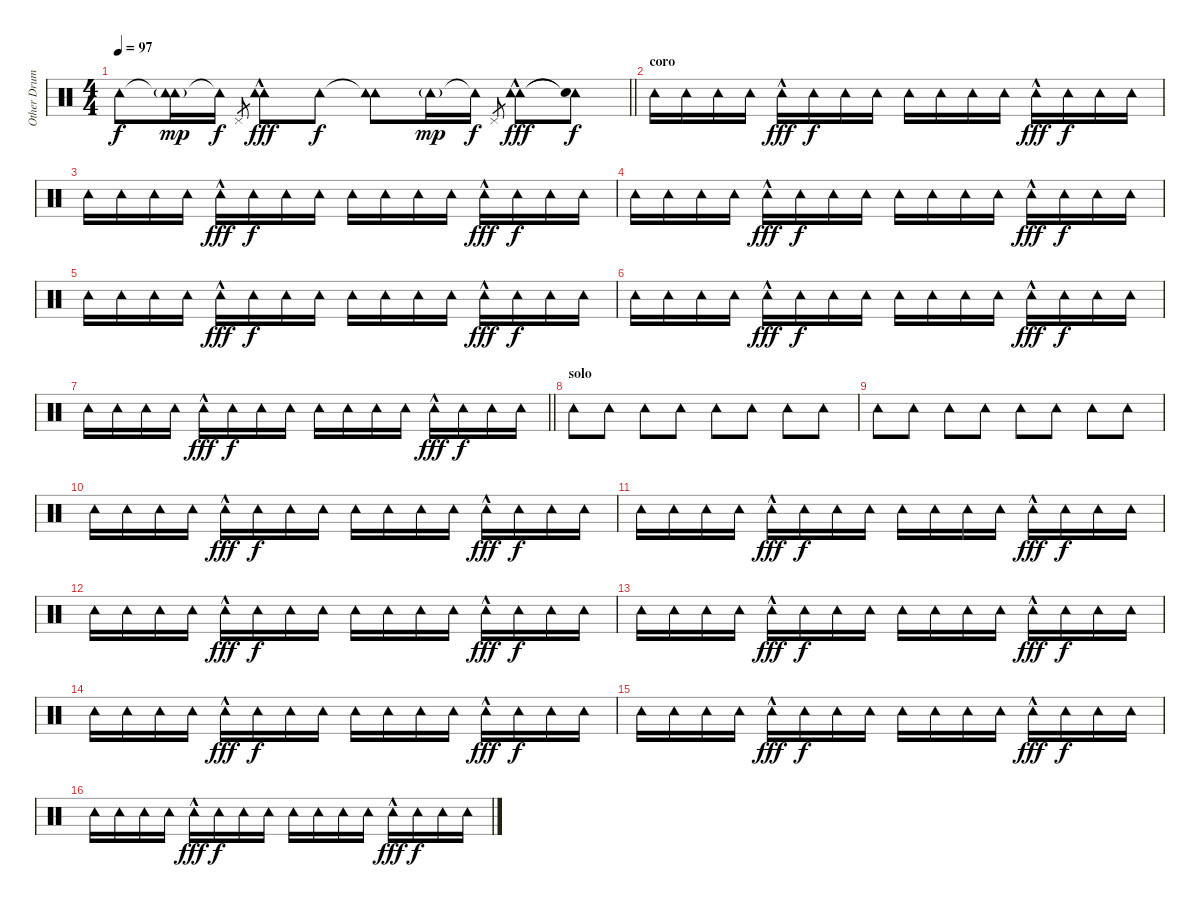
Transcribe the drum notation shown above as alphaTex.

\track ("Other Drumer" "Other Drum") {instrument percussion}
\staff {score}
\articulation defaults
\ts (4 4)
\tempo 97
\clef neutral
\barLineRight lightlight
\ks c "Tambourine (hit)".8{dy f}
("Tambourine (hit)"{t} "Tambourine (hit)"{g}).16{dy mp} "Tambourine (hit)"{t}.16{dy f} "Pedal Hi-Hat (hit)".8{gr} ("Tambourine (hit)" "Tambourine (hit)"{hac}).8{dy fff} "Tambourine (hit)".8{dy f} ("Tambourine (hit)"{t} "Tambourine (hit)").8 "Tambourine (hit)"{g}.16{dy mp} "Tambourine (hit)"{t}.16{dy f} "Pedal Hi-Hat (hit)".8{gr} ("Tambourine (hit)" "Tambourine (hit)"{hac}).8{dy fff} ("Tambourine (hit)"{t} "Snare (hit)"{t}).8{dy f} |
\section ("" "coro")
"Tambourine (hit)".16 "Tambourine (hit)".16 "Tambourine (hit)".16 "Tambourine (hit)".16 "Tambourine (hit)"{hac}.16{dy fff} "Tambourine (hit)".16{dy f} "Tambourine (hit)".16 "Tambourine (hit)".16 "Tambourine (hit)".16 "Tambourine (hit)".16 "Tambourine (hit)".16 "Tambourine (hit)".16 "Tambourine (hit)"{hac}.16{dy fff} "Tambourine (hit)".16{dy f} "Tambourine (hit)".16 "Tambourine (hit)".16 |
"Tambourine (hit)".16 "Tambourine (hit)".16 "Tambourine (hit)".16 "Tambourine (hit)".16 "Tambourine (hit)"{hac}.16{dy fff} "Tambourine (hit)".16{dy f} "Tambourine (hit)".16 "Tambourine (hit)".16 "Tambourine (hit)".16 "Tambourine (hit)".16 "Tambourine (hit)".16 "Tambourine (hit)".16 "Tambourine (hit)"{hac}.16{dy fff} "Tambourine (hit)".16{dy f} "Tambourine (hit)".16 "Tambourine (hit)".16 |
"Tambourine (hit)".16 "Tambourine (hit)".16 "Tambourine (hit)".16 "Tambourine (hit)".16 "Tambourine (hit)"{hac}.16{dy fff} "Tambourine (hit)".16{dy f} "Tambourine (hit)".16 "Tambourine (hit)".16 "Tambourine (hit)".16 "Tambourine (hit)".16 "Tambourine (hit)".16 "Tambourine (hit)".16 "Tambourine (hit)"{hac}.16{dy fff} "Tambourine (hit)".16{dy f} "Tambourine (hit)".16 "Tambourine (hit)".16 |
"Tambourine (hit)".16 "Tambourine (hit)".16 "Tambourine (hit)".16 "Tambourine (hit)".16 "Tambourine (hit)"{hac}.16{dy fff} "Tambourine (hit)".16{dy f} "Tambourine (hit)".16 "Tambourine (hit)".16 "Tambourine (hit)".16 "Tambourine (hit)".16 "Tambourine (hit)".16 "Tambourine (hit)".16 "Tambourine (hit)"{hac}.16{dy fff} "Tambourine (hit)".16{dy f} "Tambourine (hit)".16 "Tambourine (hit)".16 |
"Tambourine (hit)".16 "Tambourine (hit)".16 "Tambourine (hit)".16 "Tambourine (hit)".16 "Tambourine (hit)"{hac}.16{dy fff} "Tambourine (hit)".16{dy f} "Tambourine (hit)".16 "Tambourine (hit)".16 "Tambourine (hit)".16 "Tambourine (hit)".16 "Tambourine (hit)".16 "Tambourine (hit)".16 "Tambourine (hit)"{hac}.16{dy fff} "Tambourine (hit)".16{dy f} "Tambourine (hit)".16 "Tambourine (hit)".16 |
\barLineRight lightlight "Tambourine (hit)".16 "Tambourine (hit)".16 "Tambourine (hit)".16 "Tambourine (hit)".16 "Tambourine (hit)"{hac}.16{dy fff} "Tambourine (hit)".16{dy f} "Tambourine (hit)".16 "Tambourine (hit)".16 "Tambourine (hit)".16 "Tambourine (hit)".16 "Tambourine (hit)".16 "Tambourine (hit)".16 "Tambourine (hit)"{hac}.16{dy fff} "Tambourine (hit)".16{dy f} "Tambourine (hit)".16 "Tambourine (hit)".16
|
\section ("" "solo")
"Tambourine (hit)".8 "Tambourine (hit)".8 "Tambourine (hit)".8 "Tambourine (hit)".8 "Tambourine (hit)".8 "Tambourine (hit)".8 "Tambourine (hit)".8 "Tambourine (hit)".8 |
"Tambourine (hit)".8 "Tambourine (hit)".8 "Tambourine (hit)".8 "Tambourine (hit)".8 "Tambourine (hit)".8 "Tambourine (hit)".8 "Tambourine (hit)".8 "Tambourine (hit)".8 |
"Tambourine (hit)".16 "Tambourine (hit)".16 "Tambourine (hit)".16 "Tambourine (hit)".16 "Tambourine (hit)"{hac}.16{dy fff} "Tambourine (hit)".16{dy f} "Tambourine (hit)".16 "Tambourine (hit)".16 "Tambourine (hit)".16 "Tambourine (hit)".16 "Tambourine (hit)".16 "Tambourine (hit)".16 "Tambourine (hit)"{hac}.16{dy fff} "Tambourine (hit)".16{dy f} "Tambourine (hit)".16 "Tambourine (hit)".16 |
"Tambourine (hit)".16 "Tambourine (hit)".16 "Tambourine (hit)".16 "Tambourine (hit)".16 "Tambourine (hit)"{hac}.16{dy fff} "Tambourine (hit)".16{dy f} "Tambourine (hit)".16 "Tambourine (hit)".16 "Tambourine (hit)".16 "Tambourine (hit)".16 "Tambourine (hit)".16 "Tambourine (hit)".16 "Tambourine (hit)"{hac}.16{dy fff} "Tambourine (hit)".16{dy f} "Tambourine (hit)".16 "Tambourine (hit)".16 |
"Tambourine (hit)".16 "Tambourine (hit)".16 "Tambourine (hit)".16 "Tambourine (hit)".16 "Tambourine (hit)"{hac}.16{dy fff} "Tambourine (hit)".16{dy f} "Tambourine (hit)".16 "Tambourine (hit)".16 "Tambourine (hit)".16 "Tambourine (hit)".16 "Tambourine (hit)".16 "Tambourine (hit)".16 "Tambourine (hit)"{hac}.16{dy fff} "Tambourine (hit)".16{dy f} "Tambourine (hit)".16 "Tambourine (hit)".16 |
"Tambourine (hit)".16 "Tambourine (hit)".16 "Tambourine (hit)".16 "Tambourine (hit)".16 "Tambourine (hit)"{hac}.16{dy fff} "Tambourine (hit)".16{dy f} "Tambourine (hit)".16 "Tambourine (hit)".16 "Tambourine (hit)".16 "Tambourine (hit)".16 "Tambourine (hit)".16 "Tambourine (hit)".16 "Tambourine (hit)"{hac}.16{dy fff} "Tambourine (hit)".16{dy f} "Tambourine (hit)".16 "Tambourine (hit)".16 |
"Tambourine (hit)".16 "Tambourine (hit)".16 "Tambourine (hit)".16 "Tambourine (hit)".16 "Tambourine (hit)"{hac}.16{dy fff} "Tambourine (hit)".16{dy f} "Tambourine (hit)".16 "Tambourine (hit)".16 "Tambourine (hit)".16 "Tambourine (hit)".16 "Tambourine (hit)".16 "Tambourine (hit)".16 "Tambourine (hit)"{hac}.16{dy fff} "Tambourine (hit)".16{dy f} "Tambourine (hit)".16 "Tambourine (hit)".16 |
"Tambourine (hit)".16 "Tambourine (hit)".16 "Tambourine (hit)".16 "Tambourine (hit)".16 "Tambourine (hit)"{hac}.16{dy fff} "Tambourine (hit)".16{dy f} "Tambourine (hit)".16 "Tambourine (hit)".16 "Tambourine (hit)".16 "Tambourine (hit)".16 "Tambourine (hit)".16 "Tambourine (hit)".16 "Tambourine (hit)"{hac}.16{dy fff} "Tambourine (hit)".16{dy f} "Tambourine (hit)".16 "Tambourine (hit)".16 |
"Tambourine (hit)".16 "Tambourine (hit)".16 "Tambourine (hit)".16 "Tambourine (hit)".16 "Tambourine (hit)"{hac}.16{dy fff} "Tambourine (hit)".16{dy f} "Tambourine (hit)".16 "Tambourine (hit)".16 "Tambourine (hit)".16 "Tambourine (hit)".16 "Tambourine (hit)".16 "Tambourine (hit)".16 "Tambourine (hit)"{hac}.16{dy fff} "Tambourine (hit)".16{dy f} "Tambourine (hit)".16 "Tambourine (hit)".16
